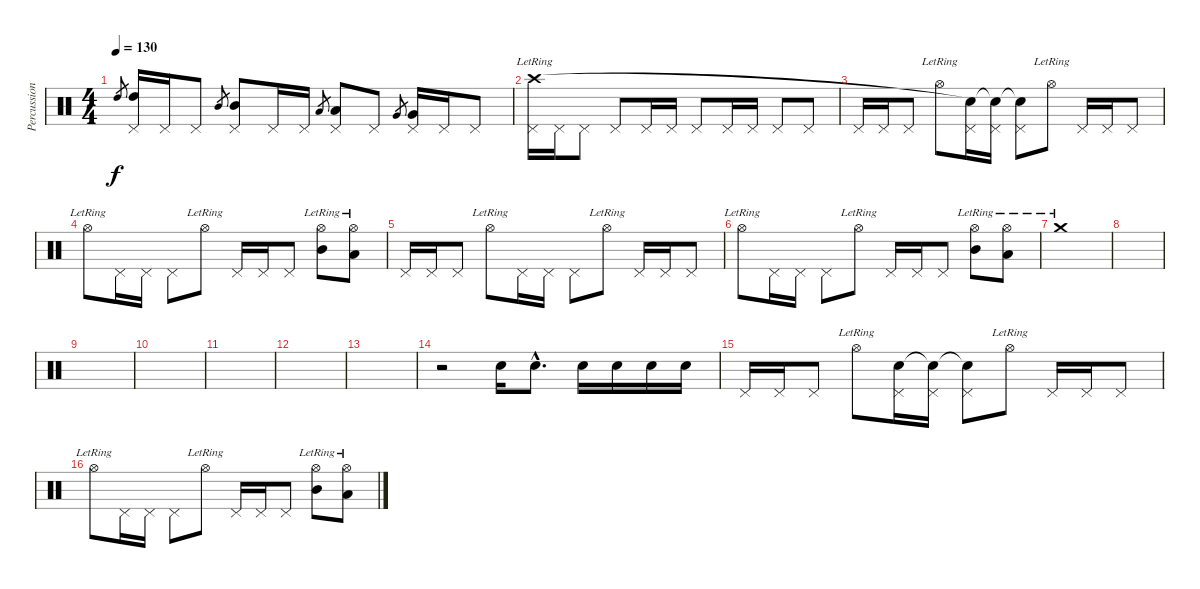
\track ("Percussions" "Percussion") {instrument percussion}
\staff {score}
\articulation defaults
\ts (4 4)
\tempo 130
\clef neutral
\ks c "High Tom (hit)".8{gr dy f}
("Pedal Hi-Hat (hit)" "High Tom (hit)").16 "Pedal Hi-Hat (hit)".16 "Pedal Hi-Hat (hit)".8 "Mid Tom (hit)".8{gr} ("Pedal Hi-Hat (hit)" "Mid Tom (hit)").8 "Pedal Hi-Hat (hit)".16 "Pedal Hi-Hat (hit)".16 "Low Tom (hit)".8{gr} ("Pedal Hi-Hat (hit)" "Low Tom (hit)").8 "Pedal Hi-Hat (hit)".8 "Very Low Tom (hit)".8{gr} ("Pedal Hi-Hat (hit)" "Very Low Tom (hit)").16 "Pedal Hi-Hat (hit)".16 "Pedal Hi-Hat (hit)".8 |
("Pedal Hi-Hat (hit)" "Crash high (hit)"{lr}).16 "Pedal Hi-Hat (hit)".16 "Pedal Hi-Hat (hit)".8 "Pedal Hi-Hat (hit)".8 "Pedal Hi-Hat (hit)".16 "Pedal Hi-Hat (hit)".16 "Pedal Hi-Hat (hit)".8 "Pedal Hi-Hat (hit)".16 "Pedal Hi-Hat (hit)".16 "Pedal Hi-Hat (hit)".8 "Pedal Hi-Hat (hit)".8 |
"Pedal Hi-Hat (hit)".16 "Pedal Hi-Hat (hit)".16 "Pedal Hi-Hat (hit)".8 "Hi-Hat (open)"{lr}.8 ("Pedal Hi-Hat (hit)" "Snare (hit)"{t}).16 ("Pedal Hi-Hat (hit)" "Snare (hit)"{t}).16 ("Pedal Hi-Hat (hit)" "Snare (hit)"{t}).8 "Hi-Hat (open)"{lr}.8 "Pedal Hi-Hat (hit)".16 "Pedal Hi-Hat (hit)".16 "Pedal Hi-Hat (hit)".8 |
"Hi-Hat (open)"{lr}.8 "Pedal Hi-Hat (hit)".16 "Pedal Hi-Hat (hit)".16 "Pedal Hi-Hat (hit)".8 "Hi-Hat (open)"{lr}.8 "Pedal Hi-Hat (hit)".16 "Pedal Hi-Hat (hit)".16 "Pedal Hi-Hat (hit)".8 ("Hi-Hat (open)"{lr} "Mid Tom (hit)"{lr}).8 ("Hi-Hat (open)"{lr} "Low Floor Tom (hit)"{lr}).8 |
"Pedal Hi-Hat (hit)".16 "Pedal Hi-Hat (hit)".16 "Pedal Hi-Hat (hit)".8 "Hi-Hat (open)"{lr}.8 "Pedal Hi-Hat (hit)".16 "Pedal Hi-Hat (hit)".16 "Pedal Hi-Hat (hit)".8 "Hi-Hat (open)"{lr}.8 "Pedal Hi-Hat (hit)".16 "Pedal Hi-Hat (hit)".16 "Pedal Hi-Hat (hit)".8 |
"Hi-Hat (open)"{lr}.8 "Pedal Hi-Hat (hit)".16 "Pedal Hi-Hat (hit)".16 "Pedal Hi-Hat (hit)".8 "Hi-Hat (open)"{lr}.8 "Pedal Hi-Hat (hit)".16 "Pedal Hi-Hat (hit)".16 "Pedal Hi-Hat (hit)".8 ("Hi-Hat (open)"{lr} "Mid Tom (hit)"{lr}).8 ("Hi-Hat (open)"{lr} "Low Tom (hit)"{lr}).8 |
"Crash medium (hit)"{lr}.1 |
|
|
|
|
|
|
r.2 "Snare (hit) 2".16 "Electric Snare (hit)"{hac}.8{d} "Snare (hit) 2".16 "Electric Snare (hit)".16 "Electric Snare (hit)".16 "Electric Snare (hit)".16 |
"Pedal Hi-Hat (hit)".16 "Pedal Hi-Hat (hit)".16 "Pedal Hi-Hat (hit)".8 "Hi-Hat (open)"{lr}.8 ("Pedal Hi-Hat (hit)" "Snare (hit)").16 ("Pedal Hi-Hat (hit)" "Snare (hit)"{t}).16 ("Pedal Hi-Hat (hit)" "Snare (hit)"{t}).8 "Hi-Hat (open)"{lr}.8 "Pedal Hi-Hat (hit)".16 "Pedal Hi-Hat (hit)".16 "Pedal Hi-Hat (hit)".8 |
"Hi-Hat (open)"{lr}.8 "Pedal Hi-Hat (hit)".16 "Pedal Hi-Hat (hit)".16 "Pedal Hi-Hat (hit)".8 "Hi-Hat (open)"{lr}.8 "Pedal Hi-Hat (hit)".16 "Pedal Hi-Hat (hit)".16 "Pedal Hi-Hat (hit)".8 ("Hi-Hat (open)"{lr} "Mid Tom (hit)"{lr}).8 ("Hi-Hat (open)"{lr} "Low Floor Tom (hit)"{lr}).8
